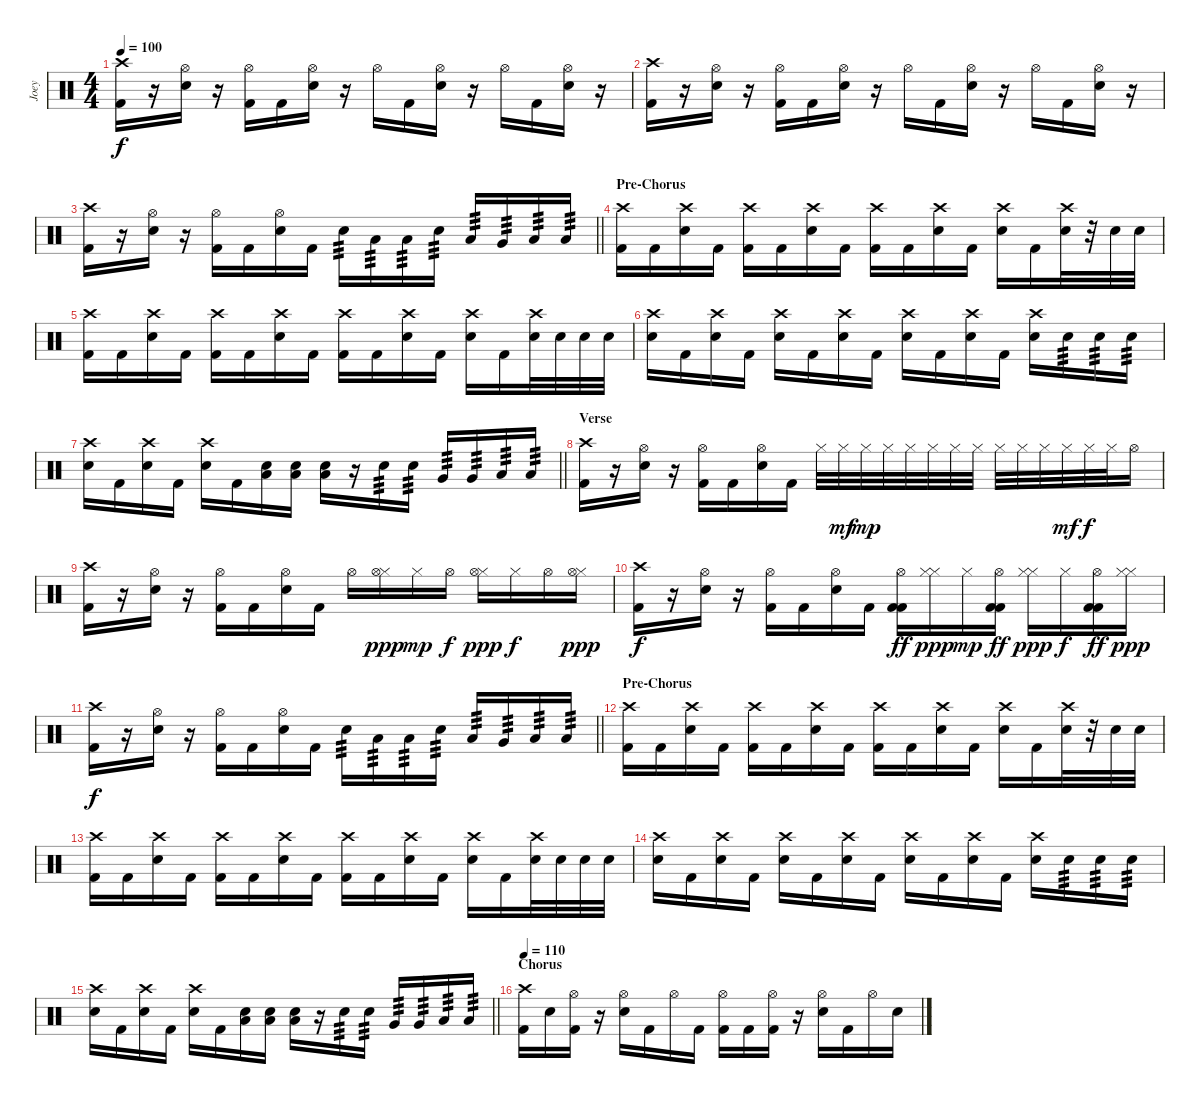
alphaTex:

\track ("Joey" "Joey") {instrument percussion}
\staff {score}
\articulation defaults
\ts (4 4)
\tempo 100
\clef neutral
\ks c
("Crash high (hit)" "Kick (hit) 2").16{dy f} r.16 ("Hi-Hat (open)" "Electric Snare (hit)").16 r.16 ("Hi-Hat (open)" "Kick (hit) 2").16 "Kick (hit) 2".16 ("Hi-Hat (open)" "Electric Snare (hit)").16 r.16 "Hi-Hat (open)".16 "Kick (hit) 2".16 ("Hi-Hat (open)" "Electric Snare (hit)").16 r.16 "Hi-Hat (open)".16 "Kick (hit) 2".16 ("Hi-Hat (open)" "Electric Snare (hit)").16 r.16 |
("Crash high (hit)" "Kick (hit) 2").16 r.16 ("Hi-Hat (open)" "Electric Snare (hit)").16 r.16 ("Hi-Hat (open)" "Kick (hit) 2").16 "Kick (hit) 2".16 ("Hi-Hat (open)" "Electric Snare (hit)").16 r.16 "Hi-Hat (open)".16 "Kick (hit) 2".16 ("Hi-Hat (open)" "Electric Snare (hit)").16 r.16 "Hi-Hat (open)".16 "Kick (hit) 2".16 ("Hi-Hat (open)" "Electric Snare (hit)").16 r.16 |
\barLineRight lightlight
("Crash high (hit)" "Kick (hit) 2").16 r.16 ("Hi-Hat (open)" "Electric Snare (hit)").16 r.16 ("Hi-Hat (open)" "Kick (hit) 2").16 "Kick (hit) 2".16 ("Hi-Hat (open)" "Electric Snare (hit)").16 "Kick (hit) 2".16 "Electric Snare (hit)".16{tp 3} "Low Tom (hit)".16{tp 3} "Low Tom (hit)".16{tp 3} "Electric Snare (hit)".16{tp 3} "Low Tom (hit)".16{tp 3} "Very Low Tom (hit)".16{tp 3} "Low Floor Tom (hit)".16{tp 3} "Low Floor Tom (hit)".16{tp 3} |
\section ("" "Pre-Chorus")
("Crash high (hit)" "Kick (hit) 2").16 "Kick (hit) 2".16 ("Crash high (hit)" "Electric Snare (hit)").16 "Kick (hit) 2".16 ("Crash high (hit)" "Kick (hit) 2").16 "Kick (hit) 2".16 ("Crash high (hit)" "Electric Snare (hit)").16 "Kick (hit) 2".16 ("Crash high (hit)" "Kick (hit) 2").16 "Kick (hit) 2".16 ("Crash high (hit)" "Electric Snare (hit)").16 "Kick (hit) 2".16 ("Crash high (hit)" "Electric Snare (hit)").16 "Kick (hit) 2".16 ("Crash high (hit)" "Electric Snare (hit)").32 r.32 "Electric Snare (hit)".32 "Electric Snare (hit)".32 |
("Crash high (hit)" "Kick (hit) 2").16 "Kick (hit) 2".16 ("Crash high (hit)" "Electric Snare (hit)").16 "Kick (hit) 2".16 ("Crash high (hit)" "Kick (hit) 2").16 "Kick (hit) 2".16 ("Crash high (hit)" "Electric Snare (hit)").16 "Kick (hit) 2".16 ("Crash high (hit)" "Kick (hit) 2").16 "Kick (hit) 2".16 ("Crash high (hit)" "Electric Snare (hit)").16 "Kick (hit) 2".16 ("Crash high (hit)" "Electric Snare (hit)").16 "Kick (hit) 2".16 ("Crash high (hit)" "Electric Snare (hit)").32 "Electric Snare (hit)".32 "Electric Snare (hit)".32 "Electric Snare (hit)".32 |
("Crash high (hit)" "Electric Snare (hit)").16 "Kick (hit) 2".16 ("Crash high (hit)" "Electric Snare (hit)").16 "Kick (hit) 2".16 ("Crash high (hit)" "Electric Snare (hit)").16 "Kick (hit) 2".16 ("Crash high (hit)" "Electric Snare (hit)").16 "Kick (hit) 2".16 ("Crash high (hit)" "Electric Snare (hit)").16 "Kick (hit) 2".16 ("Crash high (hit)" "Electric Snare (hit)").16 "Kick (hit) 2".16 ("Crash high (hit)" "Electric Snare (hit)").16 "Electric Snare (hit)".16{tp 3} "Electric Snare (hit)".16{tp 3} "Electric Snare (hit)".16{tp 3} |
\barLineRight lightlight
("Crash high (hit)" "Electric Snare (hit)").16 "Kick (hit) 2".16 ("Crash high (hit)" "Electric Snare (hit)").16 "Kick (hit) 2".16 ("Crash high (hit)" "Electric Snare (hit)").16 "Kick (hit) 2".16 ("Low Floor Tom (hit)" "Electric Snare (hit)").16 ("Low Floor Tom (hit)" "Electric Snare (hit)").16 ("Low Floor Tom (hit)" "Electric Snare (hit)").16 r.16 "Electric Snare (hit)".16{tp 3} "Electric Snare (hit)".16{tp 3} "Very Low Tom (hit)".16{tp 3} "Very Low Tom (hit)".16{tp 3} "Low Floor Tom (hit)".16{tp 3} "Low Floor Tom (hit)".16{tp 3} |
\section ("" "Verse")
("Crash high (hit)" "Kick (hit) 2").16 r.16 ("Hi-Hat (open)" "Electric Snare (hit)").16 r.16 ("Hi-Hat (open)" "Kick (hit) 2").16 "Kick (hit) 2".16 ("Hi-Hat (open)" "Electric Snare (hit)").16 "Kick (hit) 2".16 "Hi-Hat (closed)".32 "Hi-Hat (closed)".32{dy mf} "Hi-Hat (closed)".32{dy mp} "Hi-Hat (closed)".32 "Hi-Hat (closed)".32 "Hi-Hat (closed)".32 "Hi-Hat (closed)".32 "Hi-Hat (closed)".32 "Hi-Hat (closed)".32 "Hi-Hat (closed)".32 "Hi-Hat (closed)".32 "Hi-Hat (closed)".32{dy mf} "Hi-Hat (closed)".32{dy f} "Hi-Hat (closed)".32 "Hi-Hat (open)".16 |
("Crash high (hit)" "Kick (hit) 2").16 r.16 ("Hi-Hat (open)" "Electric Snare (hit)").16 r.16 ("Hi-Hat (open)" "Kick (hit) 2").16 "Kick (hit) 2".16 ("Hi-Hat (open)" "Electric Snare (hit)").16 "Kick (hit) 2".16 "Hi-Hat (open)".16 ("Hi-Hat (closed)" "Hi-Hat (open)").16{dy ppp} "Hi-Hat (closed)".16{dy mp} "Hi-Hat (open)".16{dy f} ("Hi-Hat (closed)" "Hi-Hat (open)").16{dy ppp} "Hi-Hat (closed)".16{dy f} "Hi-Hat (open)".16 ("Hi-Hat (closed)" "Hi-Hat (open)").16{dy ppp} |
("Crash high (hit)" "Kick (hit) 2").16{dy f} r.16 ("Hi-Hat (open)" "Electric Snare (hit)").16 r.16 ("Hi-Hat (open)" "Kick (hit) 2").16 "Kick (hit) 2".16 ("Hi-Hat (open)" "Electric Snare (hit)").16 "Kick (hit) 2".16 ("Hi-Hat (open)" "Kick (hit) 2" "Kick (hit) 2").16{dy ff} ("Hi-Hat (closed)" "Hi-Hat (closed)").16{dy ppp} "Hi-Hat (closed)".16{dy mp} ("Hi-Hat (open)" "Kick (hit) 2" "Kick (hit) 2").16{dy ff} ("Hi-Hat (closed)" "Hi-Hat (closed)").16{dy ppp} "Hi-Hat (closed)".16{dy f} ("Hi-Hat (open)" "Kick (hit) 2" "Kick (hit) 2").16{dy ff} ("Hi-Hat (closed)" "Hi-Hat (closed)").16{dy ppp} |
\barLineRight lightlight
("Crash high (hit)" "Kick (hit) 2").16{dy f} r.16 ("Hi-Hat (open)" "Electric Snare (hit)").16 r.16 ("Hi-Hat (open)" "Kick (hit) 2").16 "Kick (hit) 2".16 ("Hi-Hat (open)" "Electric Snare (hit)").16 "Kick (hit) 2".16 "Electric Snare (hit)".16{tp 3} "Low Tom (hit)".16{tp 3} "Low Tom (hit)".16{tp 3} "Electric Snare (hit)".16{tp 3} "Low Tom (hit)".16{tp 3} "Very Low Tom (hit)".16{tp 3} "Low Floor Tom (hit)".16{tp 3} "Low Floor Tom (hit)".16{tp 3} |
\section ("" "Pre-Chorus")
("Crash high (hit)" "Kick (hit) 2").16 "Kick (hit) 2".16 ("Crash high (hit)" "Electric Snare (hit)").16 "Kick (hit) 2".16 ("Crash high (hit)" "Kick (hit) 2").16 "Kick (hit) 2".16 ("Crash high (hit)" "Electric Snare (hit)").16 "Kick (hit) 2".16 ("Crash high (hit)" "Kick (hit) 2").16 "Kick (hit) 2".16 ("Crash high (hit)" "Electric Snare (hit)").16 "Kick (hit) 2".16 ("Crash high (hit)" "Electric Snare (hit)").16 "Kick (hit) 2".16 ("Crash high (hit)" "Electric Snare (hit)").32 r.32 "Electric Snare (hit)".32 "Electric Snare (hit)".32 |
("Crash high (hit)" "Kick (hit) 2").16 "Kick (hit) 2".16 ("Crash high (hit)" "Electric Snare (hit)").16 "Kick (hit) 2".16 ("Crash high (hit)" "Kick (hit) 2").16 "Kick (hit) 2".16 ("Crash high (hit)" "Electric Snare (hit)").16 "Kick (hit) 2".16 ("Crash high (hit)" "Kick (hit) 2").16 "Kick (hit) 2".16 ("Crash high (hit)" "Electric Snare (hit)").16 "Kick (hit) 2".16 ("Crash high (hit)" "Electric Snare (hit)").16 "Kick (hit) 2".16 ("Crash high (hit)" "Electric Snare (hit)").32 "Electric Snare (hit)".32 "Electric Snare (hit)".32 "Electric Snare (hit)".32 |
("Crash high (hit)" "Electric Snare (hit)").16 "Kick (hit) 2".16 ("Crash high (hit)" "Electric Snare (hit)").16 "Kick (hit) 2".16 ("Crash high (hit)" "Electric Snare (hit)").16 "Kick (hit) 2".16 ("Crash high (hit)" "Electric Snare (hit)").16 "Kick (hit) 2".16 ("Crash high (hit)" "Electric Snare (hit)").16 "Kick (hit) 2".16 ("Crash high (hit)" "Electric Snare (hit)").16 "Kick (hit) 2".16 ("Crash high (hit)" "Electric Snare (hit)").16 "Electric Snare (hit)".16{tp 3} "Electric Snare (hit)".16{tp 3} "Electric Snare (hit)".16{tp 3} |
\barLineRight lightlight
("Crash high (hit)" "Electric Snare (hit)").16 "Kick (hit) 2".16 ("Crash high (hit)" "Electric Snare (hit)").16 "Kick (hit) 2".16 ("Crash high (hit)" "Electric Snare (hit)").16 "Kick (hit) 2".16 ("Low Floor Tom (hit)" "Electric Snare (hit)").16 ("Low Floor Tom (hit)" "Electric Snare (hit)").16 ("Low Floor Tom (hit)" "Electric Snare (hit)").16 r.16 "Electric Snare (hit)".16{tp 3} "Electric Snare (hit)".16{tp 3} "Very Low Tom (hit)".16{tp 3} "Very Low Tom (hit)".16{tp 3} "Low Floor Tom (hit)".16{tp 3} "Low Floor Tom (hit)".16{tp 3} |
\section ("" "Chorus")
\tempo 110
("Crash high (hit)" "Kick (hit) 2").16 "Electric Snare (hit)".16 ("Hi-Hat (open)" "Kick (hit) 2").16 r.16 ("Hi-Hat (open)" "Electric Snare (hit)").16 "Kick (hit) 2".16 "Hi-Hat (open)".16 "Kick (hit) 2".16 ("Hi-Hat (open)" "Kick (hit) 2").16 "Kick (hit) 2".16 ("Hi-Hat (open)" "Kick (hit) 2").16 r.16 ("Hi-Hat (open)" "Electric Snare (hit)").16 "Kick (hit) 2".16 "Hi-Hat (open)".16 "Electric Snare (hit)".16
